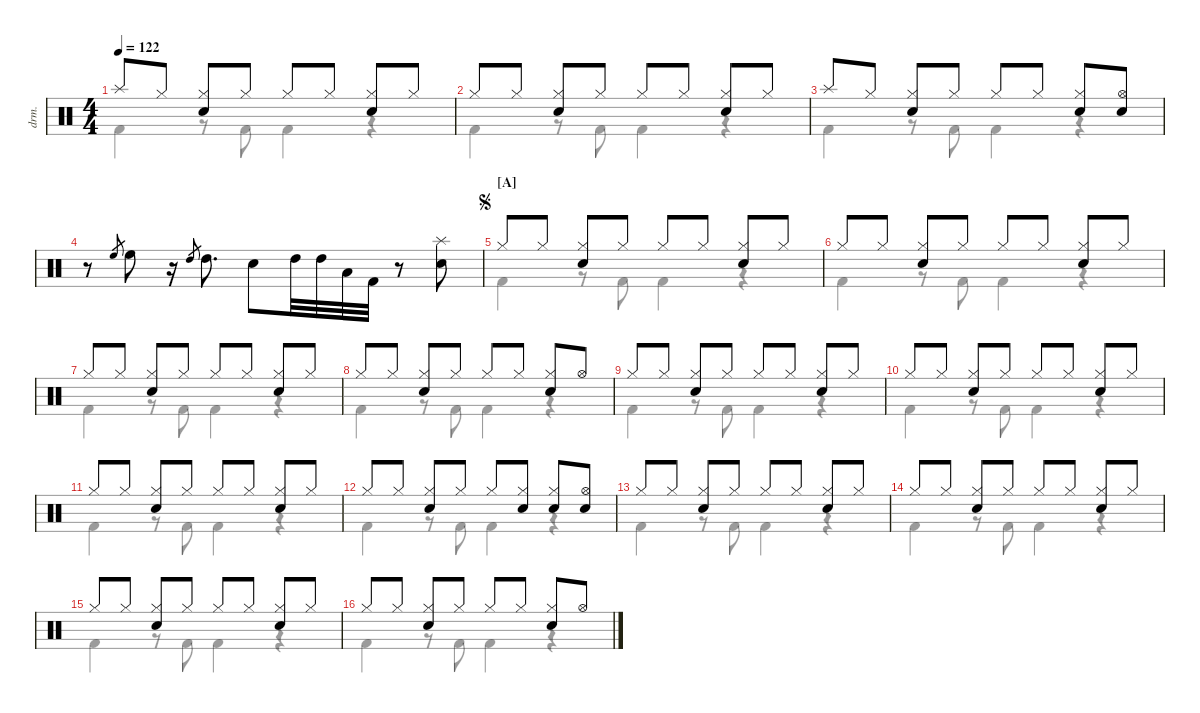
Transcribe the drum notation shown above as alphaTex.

\defaultSystemsLayout 4
\hideDynamics
\bracketExtendMode nobrackets
\track ("Drumkit" "drm.") {defaultSystemsLayout 4 instrument percussion}
\staff {score}
\articulation defaults
\voice
\ts (4 4)
\tempo 122
\clef neutral
\ks c "Splash (hit)".8{dy mf beam Up} "Hi-Hat (closed)".8{beam Up}
("Hi-Hat (closed)" "Snare (hit) 2").8{beam Up} "Hi-Hat (closed)".8{beam Up} "Hi-Hat (closed)".8{beam Up} "Hi-Hat (closed)".8{beam Up} ("Hi-Hat (closed)" "Snare (hit) 2").8{beam Up} "Hi-Hat (closed)".8{beam Up} |
"Hi-Hat (closed)".8{beam Up} "Hi-Hat (closed)".8{beam Up} ("Hi-Hat (closed)" "Snare (hit) 2").8{beam Up} "Hi-Hat (closed)".8{beam Up} "Hi-Hat (closed)".8{beam Up} "Hi-Hat (closed)".8{beam Up} ("Hi-Hat (closed)" "Snare (hit) 2").8{beam Up} "Hi-Hat (closed)".8{beam Up} |
"Splash (hit)".8{beam Up} "Hi-Hat (closed)".8{beam Up} ("Hi-Hat (closed)" "Snare (hit) 2").8{beam Up} "Hi-Hat (closed)".8{beam Up} "Hi-Hat (closed)".8{beam Up} "Hi-Hat (closed)".8{beam Up} ("Hi-Hat (closed)" "Snare (hit) 2").8{beam Up} ("Hi-Hat (open)" "Snare (hit) 2").8{beam Up} |
r.8{beam Down} "High Floor Tom (hit)".8{gr beam Up} "High Floor Tom (hit)".8{beam Down} r.16{beam Down} "High Tom (hit)".8{gr beam Up} "High Tom (hit)".8{d beam Down} "Snare (hit) 2".8{beam Down} "High Tom (hit)".32{beam Down} "High Tom (hit)".32{beam Down} "Low Tom (hit)".32{beam Down} "Kick (hit) 2".32{beam Down} r.8{beam Down} ("Snare (hit) 2" "Splash (hit)").8{beam Down} |
\section ("A" "")
\jump segno "Hi-Hat (closed)".8{beam Up} "Hi-Hat (closed)".8{beam Up}
("Hi-Hat (closed)" "Snare (hit) 2").8{beam Up} "Hi-Hat (closed)".8{beam Up} "Hi-Hat (closed)".8{beam Up} "Hi-Hat (closed)".8{beam Up} ("Hi-Hat (closed)" "Snare (hit) 2").8{beam Up} "Hi-Hat (closed)".8{beam Up} |
"Hi-Hat (closed)".8{beam Up} "Hi-Hat (closed)".8{beam Up} ("Hi-Hat (closed)" "Snare (hit) 2").8{beam Up} "Hi-Hat (closed)".8{beam Up} "Hi-Hat (closed)".8{beam Up} "Hi-Hat (closed)".8{beam Up} ("Hi-Hat (closed)" "Snare (hit) 2").8{beam Up} "Hi-Hat (closed)".8{beam Up} |
"Hi-Hat (closed)".8{beam Up} "Hi-Hat (closed)".8{beam Up} ("Hi-Hat (closed)" "Snare (hit) 2").8{beam Up} "Hi-Hat (closed)".8{beam Up} "Hi-Hat (closed)".8{beam Up} "Hi-Hat (closed)".8{beam Up} ("Hi-Hat (closed)" "Snare (hit) 2").8{beam Up} "Hi-Hat (closed)".8{beam Up} |
"Hi-Hat (closed)".8{beam Up} "Hi-Hat (closed)".8{beam Up} ("Hi-Hat (closed)" "Snare (hit) 2").8{beam Up} "Hi-Hat (closed)".8{beam Up} "Hi-Hat (closed)".8{beam Up} "Hi-Hat (closed)".8{beam Up} ("Hi-Hat (closed)" "Snare (hit) 2").8{beam Up} "Hi-Hat (open)".8{beam Up} |
"Hi-Hat (closed)".8{beam Up} "Hi-Hat (closed)".8{beam Up} ("Hi-Hat (closed)" "Snare (hit) 2").8{beam Up} "Hi-Hat (closed)".8{beam Up} "Hi-Hat (closed)".8{beam Up} "Hi-Hat (closed)".8{beam Up} ("Hi-Hat (closed)" "Snare (hit) 2").8{beam Up} "Hi-Hat (closed)".8{beam Up} |
"Hi-Hat (closed)".8{beam Up} "Hi-Hat (closed)".8{beam Up} ("Hi-Hat (closed)" "Snare (hit) 2").8{beam Up} "Hi-Hat (closed)".8{beam Up} "Hi-Hat (closed)".8{beam Up} "Hi-Hat (closed)".8{beam Up} ("Hi-Hat (closed)" "Snare (hit) 2").8{beam Up} "Hi-Hat (closed)".8{beam Up} |
"Hi-Hat (closed)".8{beam Up} "Hi-Hat (closed)".8{beam Up} ("Hi-Hat (closed)" "Snare (hit) 2").8{beam Up} "Hi-Hat (closed)".8{beam Up} "Hi-Hat (closed)".8{beam Up} "Hi-Hat (closed)".8{beam Up} ("Hi-Hat (closed)" "Snare (hit) 2").8{beam Up} "Hi-Hat (closed)".8{beam Up} |
"Hi-Hat (closed)".8{beam Up} "Hi-Hat (closed)".8{beam Up} ("Hi-Hat (closed)" "Snare (hit) 2").8{beam Up} "Hi-Hat (closed)".8{beam Up} "Hi-Hat (closed)".8{beam Up} ("Hi-Hat (closed)" "Snare (hit) 2").8{beam Up} ("Hi-Hat (closed)" "Snare (hit) 2").8{beam Up} ("Hi-Hat (open)" "Snare (hit) 2").8{beam Up} |
"Hi-Hat (closed)".8{beam Up} "Hi-Hat (closed)".8{beam Up} ("Hi-Hat (closed)" "Snare (hit) 2").8{beam Up} "Hi-Hat (closed)".8{beam Up} "Hi-Hat (closed)".8{beam Up} "Hi-Hat (closed)".8{beam Up} ("Hi-Hat (closed)" "Snare (hit) 2").8{beam Up} "Hi-Hat (closed)".8{beam Up} |
"Hi-Hat (closed)".8{beam Up} "Hi-Hat (closed)".8{beam Up} ("Hi-Hat (closed)" "Snare (hit) 2").8{beam Up} "Hi-Hat (closed)".8{beam Up} "Hi-Hat (closed)".8{beam Up} "Hi-Hat (closed)".8{beam Up} ("Hi-Hat (closed)" "Snare (hit) 2").8{beam Up} "Hi-Hat (closed)".8{beam Up} |
"Hi-Hat (closed)".8{beam Up} "Hi-Hat (closed)".8{beam Up} ("Hi-Hat (closed)" "Snare (hit) 2").8{beam Up} "Hi-Hat (closed)".8{beam Up} "Hi-Hat (closed)".8{beam Up} "Hi-Hat (closed)".8{beam Up} ("Hi-Hat (closed)" "Snare (hit) 2").8{beam Up} "Hi-Hat (closed)".8{beam Up} |
"Hi-Hat (closed)".8{beam Up} "Hi-Hat (closed)".8{beam Up} ("Hi-Hat (closed)" "Snare (hit) 2").8{beam Up} "Hi-Hat (closed)".8{beam Up} "Hi-Hat (closed)".8{beam Up} "Hi-Hat (closed)".8{beam Up} ("Hi-Hat (closed)" "Snare (hit) 2").8{beam Up} "Hi-Hat (open)".8{beam Up}
\voice
\clef neutral
\ottava regular
\simile none
\ks c
|
|
|
|
|
|
|
|
|
|
|
|
|
|
|
\voice
\clef neutral
\ottava regular
\simile none
\ks c "Kick (hit) 2".4{dy mf beam Down}
r.8{beam Down} "Kick (hit) 2".8{beam Down} "Kick (hit) 2".4{beam Down} r.4{beam Down} |
"Kick (hit) 2".4{beam Down} r.8{beam Down} "Kick (hit) 2".8{beam Down} "Kick (hit) 2".4{beam Down} r.4{beam Down} |
"Kick (hit) 2".4{beam Down} r.8{beam Down} "Kick (hit) 2".8{beam Down} "Kick (hit) 2".4{beam Down} r.4{beam Down} |
|
"Kick (hit) 2".4{beam Down} r.8{beam Down} "Kick (hit) 2".8{beam Down} "Kick (hit) 2".4{beam Down} r.4{beam Down} |
"Kick (hit) 2".4{beam Down} r.8{beam Down} "Kick (hit) 2".8{beam Down} "Kick (hit) 2".4{beam Down} r.4{beam Down} |
"Kick (hit) 2".4{beam Down} r.8{beam Down} "Kick (hit) 2".8{beam Down} "Kick (hit) 2".4{beam Down} r.4{beam Down} |
"Kick (hit) 2".4{beam Down} r.8{beam Down} "Kick (hit) 2".8{beam Down} "Kick (hit) 2".4{beam Down} r.4{beam Down} |
"Kick (hit) 2".4{beam Down} r.8{beam Down} "Kick (hit) 2".8{beam Down} "Kick (hit) 2".4{beam Down} r.4{beam Down} |
"Kick (hit) 2".4{beam Down} r.8{beam Down} "Kick (hit) 2".8{beam Down} "Kick (hit) 2".4{beam Down} r.4{beam Down} |
"Kick (hit) 2".4{beam Down} r.8{beam Down} "Kick (hit) 2".8{beam Down} "Kick (hit) 2".4{beam Down} r.4{beam Down} |
"Kick (hit) 2".4{beam Down} r.8{beam Down} "Kick (hit) 2".8{beam Down} "Kick (hit) 2".4{beam Down} r.4{beam Down} |
"Kick (hit) 2".4{beam Down} r.8{beam Down} "Kick (hit) 2".8{beam Down} "Kick (hit) 2".4{beam Down} r.4{beam Down} |
"Kick (hit) 2".4{beam Down} r.8{beam Down} "Kick (hit) 2".8{beam Down} "Kick (hit) 2".4{beam Down} r.4{beam Down} |
"Kick (hit) 2".4{beam Down} r.8{beam Down} "Kick (hit) 2".8{beam Down} "Kick (hit) 2".4{beam Down} r.4{beam Down} |
"Kick (hit) 2".4{beam Down} r.8{beam Down} "Kick (hit) 2".8{beam Down} "Kick (hit) 2".4{beam Down} r.4{beam Down}
